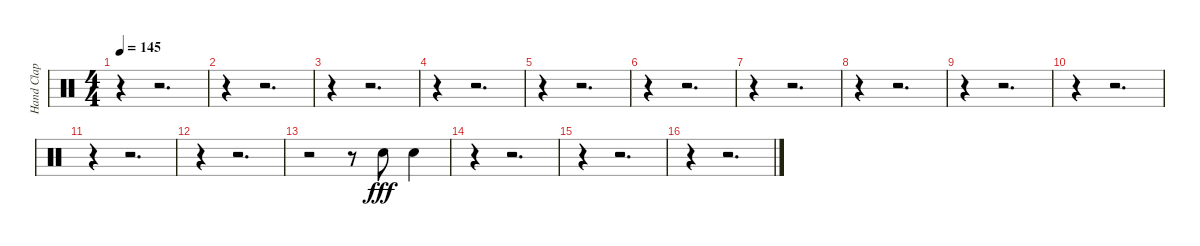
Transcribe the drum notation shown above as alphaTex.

\track ("Hand Clap" "Hand Clap") {instrument percussion}
\staff {score}
\articulation defaults
\ts (4 4)
\tempo 145
\clef neutral
\ks c
r.4{dy fff} r.2{d} |
r.4 r.2{d} |
r.4 r.2{d} |
r.4 r.2{d} |
r.4 r.2{d} |
r.4 r.2{d} |
r.4 r.2{d} |
r.4 r.2{d} |
r.4 r.2{d} |
r.4 r.2{d} |
r.4 r.2{d} |
r.4 r.2{d} |
r.2 r.8 "Hand Clap (hit)".8 "Hand Clap (hit)".4 |
r.4 r.2{d} |
r.4 r.2{d} |
r.4 r.2{d}
